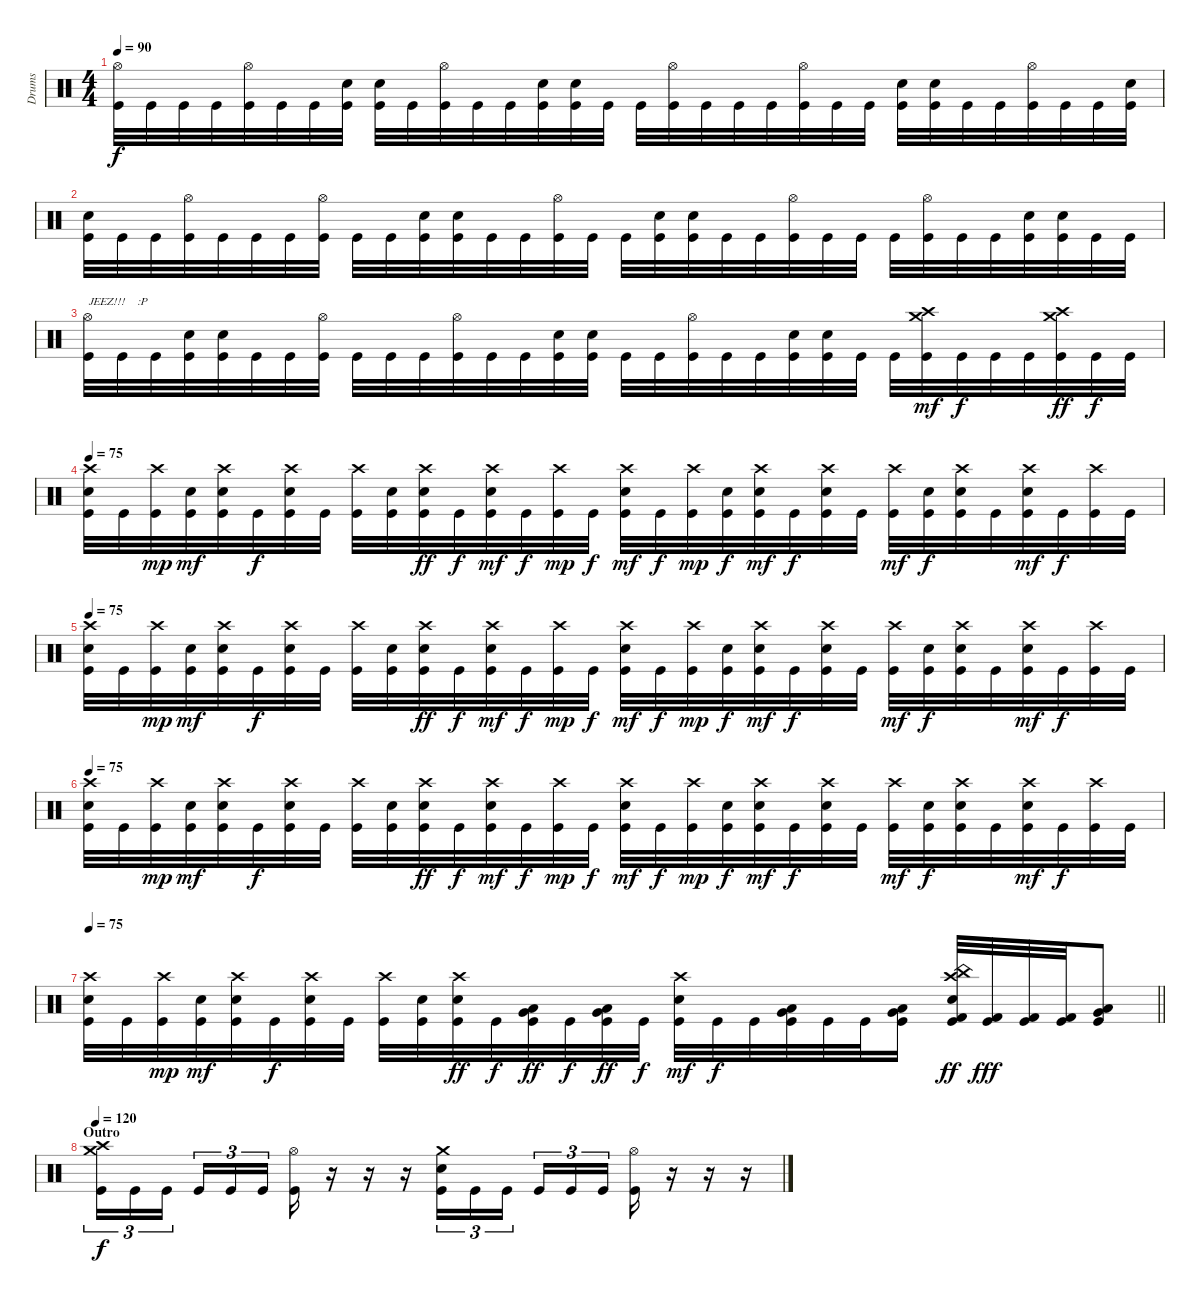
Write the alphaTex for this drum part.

\track ("Drums" "Drums") {instrument percussion}
\staff {score}
\articulation defaults
\ts (4 4)
\tempo 90
\clef neutral
\ks c
("Hi-Hat (open)" "Kick (hit)").32{dy f} "Kick (hit)".32 "Kick (hit)".32 "Kick (hit)".32 ("Hi-Hat (open)" "Kick (hit)").32 "Kick (hit)".32 "Kick (hit)".32 ("Electric Snare (hit)" "Kick (hit)").32 ("Electric Snare (hit)" "Kick (hit)").32 "Kick (hit)".32 ("Hi-Hat (open)" "Kick (hit)").32 "Kick (hit)".32 "Kick (hit)".32 ("Electric Snare (hit)" "Kick (hit)").32 ("Electric Snare (hit)" "Kick (hit)").32 "Kick (hit)".32 "Kick (hit)".32 ("Hi-Hat (open)" "Kick (hit)").32 "Kick (hit)".32 "Kick (hit)".32 "Kick (hit)".32 ("Hi-Hat (open)" "Kick (hit)").32 "Kick (hit)".32 "Kick (hit)".32 ("Electric Snare (hit)" "Kick (hit)").32 ("Electric Snare (hit)" "Kick (hit)").32 "Kick (hit)".32 "Kick (hit)".32 ("Hi-Hat (open)" "Kick (hit)").32 "Kick (hit)".32 "Kick (hit)".32 ("Electric Snare (hit)" "Kick (hit)").32 |
("Electric Snare (hit)" "Kick (hit)").32 "Kick (hit)".32 "Kick (hit)".32 ("Hi-Hat (open)" "Kick (hit)").32 "Kick (hit)".32 "Kick (hit)".32 "Kick (hit)".32 ("Hi-Hat (open)" "Kick (hit)").32 "Kick (hit)".32 "Kick (hit)".32 ("Electric Snare (hit)" "Kick (hit)").32 ("Electric Snare (hit)" "Kick (hit)").32 "Kick (hit)".32 "Kick (hit)".32 ("Hi-Hat (open)" "Kick (hit)").32 "Kick (hit)".32 "Kick (hit)".32 ("Electric Snare (hit)" "Kick (hit)").32 ("Electric Snare (hit)" "Kick (hit)").32 "Kick (hit)".32 "Kick (hit)".32 ("Hi-Hat (open)" "Kick (hit)").32 "Kick (hit)".32 "Kick (hit)".32 "Kick (hit)".32 ("Hi-Hat (open)" "Kick (hit)").32 "Kick (hit)".32 "Kick (hit)".32 ("Electric Snare (hit)" "Kick (hit)").32 ("Electric Snare (hit)" "Kick (hit)").32 "Kick (hit)".32 "Kick (hit)".32 |
("Hi-Hat (open)" "Kick (hit)").32{txt "JEEZ!!!    :P"} "Kick (hit)".32 "Kick (hit)".32 ("Electric Snare (hit)" "Kick (hit)").32 ("Electric Snare (hit)" "Kick (hit)").32 "Kick (hit)".32 "Kick (hit)".32 ("Hi-Hat (open)" "Kick (hit)").32 "Kick (hit)".32 "Kick (hit)".32 "Kick (hit)".32 ("Hi-Hat (open)" "Kick (hit)").32 "Kick (hit)".32 "Kick (hit)".32 ("Electric Snare (hit)" "Kick (hit)").32 ("Electric Snare (hit)" "Kick (hit)").32 "Kick (hit)".32 "Kick (hit)".32 ("Hi-Hat (open)" "Kick (hit)").32 "Kick (hit)".32 "Kick (hit)".32 ("Electric Snare (hit)" "Kick (hit)").32 ("Electric Snare (hit)" "Kick (hit)").32 "Kick (hit)".32 "Kick (hit)".32 ("Crash medium (hit)" "Crash high (hit)" "Kick (hit)").32{dy mf} "Kick (hit)".32{dy f} "Kick (hit)".32 "Kick (hit)".32 ("Crash medium (hit)" "Crash high (hit)" "Kick (hit)").32{dy ff} "Kick (hit)".32{dy f} "Kick (hit)".32 |
\tempo 75
("Crash high (hit)" "Electric Snare (hit)" "Kick (hit)").32 "Kick (hit)".32 ("Crash high (hit)" "Kick (hit)").32{dy mp} ("Electric Snare (hit)" "Kick (hit)").32{dy mf} ("Crash high (hit)" "Electric Snare (hit)" "Kick (hit)").32 "Kick (hit)".32{dy f} ("Crash high (hit)" "Electric Snare (hit)" "Kick (hit)").32 "Kick (hit)".32 ("Crash high (hit)" "Kick (hit)").32 ("Electric Snare (hit)" "Kick (hit)").32 ("Crash high (hit)" "Electric Snare (hit)" "Kick (hit)").32{dy ff} "Kick (hit)".32{dy f} ("Crash high (hit)" "Electric Snare (hit)" "Kick (hit)").32{dy mf} "Kick (hit)".32{dy f} ("Crash high (hit)" "Kick (hit)").32{dy mp} "Kick (hit)".32{dy f} ("Crash high (hit)" "Electric Snare (hit)" "Kick (hit)").32{dy mf} "Kick (hit)".32{dy f} ("Crash high (hit)" "Kick (hit)").32{dy mp} ("Electric Snare (hit)" "Kick (hit)").32{dy f} ("Crash high (hit)" "Electric Snare (hit)" "Kick (hit)").32{dy mf} "Kick (hit)".32{dy f} ("Crash high (hit)" "Electric Snare (hit)" "Kick (hit)").32 "Kick (hit)".32 ("Crash high (hit)" "Kick (hit)").32{dy mf} ("Electric Snare (hit)" "Kick (hit)").32{dy f} ("Crash high (hit)" "Electric Snare (hit)" "Kick (hit)").32 "Kick (hit)".32 ("Crash high (hit)" "Electric Snare (hit)" "Kick (hit)").32{dy mf} "Kick (hit)".32{dy f} ("Crash high (hit)" "Kick (hit)").32 "Kick (hit)".32 |
\tempo 75
("Crash high (hit)" "Electric Snare (hit)" "Kick (hit)").32 "Kick (hit)".32 ("Crash high (hit)" "Kick (hit)").32{dy mp} ("Electric Snare (hit)" "Kick (hit)").32{dy mf} ("Crash high (hit)" "Electric Snare (hit)" "Kick (hit)").32 "Kick (hit)".32{dy f} ("Crash high (hit)" "Electric Snare (hit)" "Kick (hit)").32 "Kick (hit)".32 ("Crash high (hit)" "Kick (hit)").32 ("Electric Snare (hit)" "Kick (hit)").32 ("Crash high (hit)" "Electric Snare (hit)" "Kick (hit)").32{dy ff} "Kick (hit)".32{dy f} ("Crash high (hit)" "Electric Snare (hit)" "Kick (hit)").32{dy mf} "Kick (hit)".32{dy f} ("Crash high (hit)" "Kick (hit)").32{dy mp} "Kick (hit)".32{dy f} ("Crash high (hit)" "Electric Snare (hit)" "Kick (hit)").32{dy mf} "Kick (hit)".32{dy f} ("Crash high (hit)" "Kick (hit)").32{dy mp} ("Electric Snare (hit)" "Kick (hit)").32{dy f} ("Crash high (hit)" "Electric Snare (hit)" "Kick (hit)").32{dy mf} "Kick (hit)".32{dy f} ("Crash high (hit)" "Electric Snare (hit)" "Kick (hit)").32 "Kick (hit)".32 ("Crash high (hit)" "Kick (hit)").32{dy mf} ("Electric Snare (hit)" "Kick (hit)").32{dy f} ("Crash high (hit)" "Electric Snare (hit)" "Kick (hit)").32 "Kick (hit)".32 ("Crash high (hit)" "Electric Snare (hit)" "Kick (hit)").32{dy mf} "Kick (hit)".32{dy f} ("Crash high (hit)" "Kick (hit)").32 "Kick (hit)".32 |
\tempo 75
("Crash high (hit)" "Electric Snare (hit)" "Kick (hit)").32 "Kick (hit)".32 ("Crash high (hit)" "Kick (hit)").32{dy mp} ("Electric Snare (hit)" "Kick (hit)").32{dy mf} ("Crash high (hit)" "Electric Snare (hit)" "Kick (hit)").32 "Kick (hit)".32{dy f} ("Crash high (hit)" "Electric Snare (hit)" "Kick (hit)").32 "Kick (hit)".32 ("Crash high (hit)" "Kick (hit)").32 ("Electric Snare (hit)" "Kick (hit)").32 ("Crash high (hit)" "Electric Snare (hit)" "Kick (hit)").32{dy ff} "Kick (hit)".32{dy f} ("Crash high (hit)" "Electric Snare (hit)" "Kick (hit)").32{dy mf} "Kick (hit)".32{dy f} ("Crash high (hit)" "Kick (hit)").32{dy mp} "Kick (hit)".32{dy f} ("Crash high (hit)" "Electric Snare (hit)" "Kick (hit)").32{dy mf} "Kick (hit)".32{dy f} ("Crash high (hit)" "Kick (hit)").32{dy mp} ("Electric Snare (hit)" "Kick (hit)").32{dy f} ("Crash high (hit)" "Electric Snare (hit)" "Kick (hit)").32{dy mf} "Kick (hit)".32{dy f} ("Crash high (hit)" "Electric Snare (hit)" "Kick (hit)").32 "Kick (hit)".32 ("Crash high (hit)" "Kick (hit)").32{dy mf} ("Electric Snare (hit)" "Kick (hit)").32{dy f} ("Crash high (hit)" "Electric Snare (hit)" "Kick (hit)").32 "Kick (hit)".32 ("Crash high (hit)" "Electric Snare (hit)" "Kick (hit)").32{dy mf} "Kick (hit)".32{dy f} ("Crash high (hit)" "Kick (hit)").32 "Kick (hit)".32 |
\tempo 75
\barLineRight lightlight
("Crash high (hit)" "Electric Snare (hit)" "Kick (hit)").32 "Kick (hit)".32 ("Crash high (hit)" "Kick (hit)").32{dy mp} ("Electric Snare (hit)" "Kick (hit)").32{dy mf} ("Crash high (hit)" "Electric Snare (hit)" "Kick (hit)").32 "Kick (hit)".32{dy f} ("Crash high (hit)" "Electric Snare (hit)" "Kick (hit)").32 "Kick (hit)".32 ("Crash high (hit)" "Kick (hit)").32 ("Electric Snare (hit)" "Kick (hit)").32 ("Crash high (hit)" "Electric Snare (hit)" "Kick (hit)").32{dy ff} "Kick (hit)".32{dy f} ("Low Tom (hit)" "Very Low Tom (hit)" "Kick (hit)").32{dy ff} "Kick (hit)".32{dy f} ("Very Low Tom (hit)" "Low Floor Tom (hit)" "Kick (hit)").32{dy ff} "Kick (hit)".32{dy f} ("Crash high (hit)" "Electric Snare (hit)" "Kick (hit)").32{dy mf} "Kick (hit)".32{dy f} "Kick (hit)".32 ("Low Tom (hit)" "Very Low Tom (hit)" "Kick (hit)").32 "Kick (hit)".32 "Kick (hit)".32 ("Very Low Tom (hit)" "Low Floor Tom (hit)" "Kick (hit)").16 ("China (hit)" "Crash high (hit)" "Electric Snare (hit)" "Kick (hit) 2" "Kick (hit)").32{dy ff} ("Kick (hit) 2" "Kick (hit)").32{dy fff} ("Kick (hit) 2" "Kick (hit)").32 ("Kick (hit) 2" "Kick (hit)").32 ("Very Low Tom (hit)" "Low Floor Tom (hit)" "Kick (hit)").8 |
\section ("" "Outro")
\tempo 120
("Crash medium (hit)" "Crash high (hit)" "Kick (hit)").16{tu (3 2) dy f} "Kick (hit)".16{tu (3 2)} "Kick (hit)".16{tu (3 2)} "Kick (hit)".16{tu (3 2)} "Kick (hit)".16{tu (3 2)} "Kick (hit)".16{tu (3 2)} ("Hi-Hat (open)" "Kick (hit)").16 r.16 r.16 r.16 ("Crash medium (hit)" "Electric Snare (hit)" "Kick (hit)").16{tu (3 2)} "Kick (hit)".16{tu (3 2)} "Kick (hit)".16{tu (3 2)} "Kick (hit)".16{tu (3 2)} "Kick (hit)".16{tu (3 2)} "Kick (hit)".16{tu (3 2)} ("Hi-Hat (open)" "Kick (hit)").16 r.16 r.16 r.16
